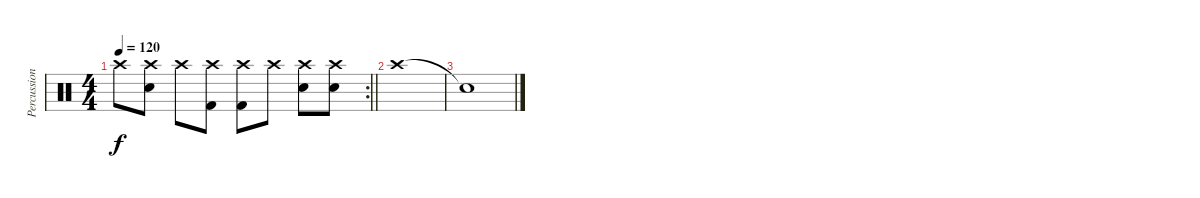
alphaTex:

\track ("Percussion" "Percussion") {instrument percussion}
\staff {score}
\articulation defaults
\rc 2
\ts (4 4)
\tempo 120
\clef neutral
\barLineRight lightlight
\ks c "Crash high (hit)".8{dy f}
("Crash high (hit)" "Snare (hit) 2").8 "Crash high (hit)".8 ("Crash high (hit)" "Kick (hit) 2").8 ("Crash high (hit)" "Kick (hit) 2").8 "Crash high (hit)".8 ("Crash high (hit)" "Snare (hit) 2").8 ("Crash high (hit)" "Snare (hit) 2").8 |
"Crash high (hit)".1 |
"Snare (hit)"{t}.1
